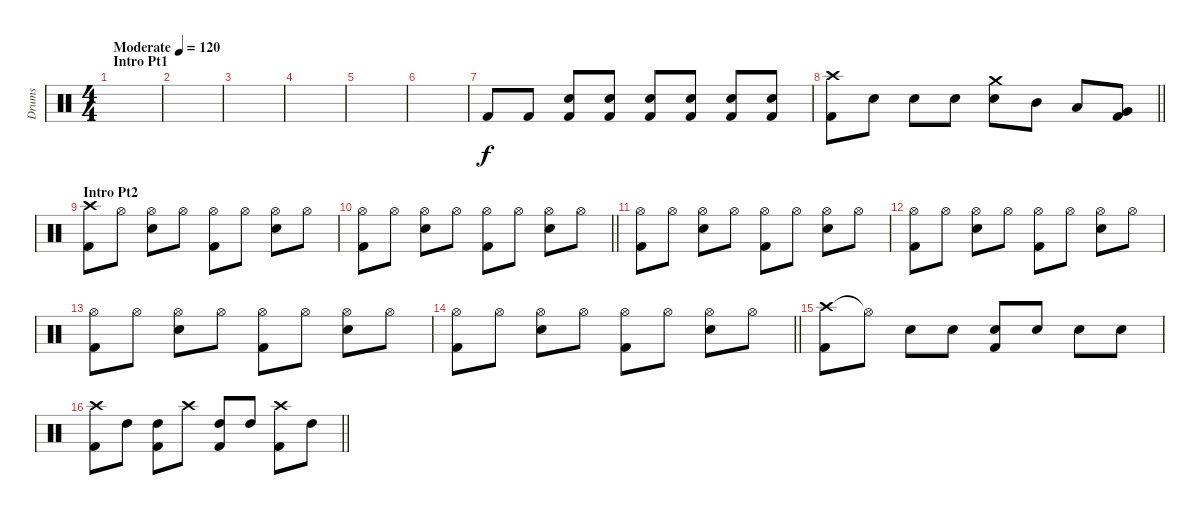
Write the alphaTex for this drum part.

\track ("Drums" "Drums") {instrument percussion}
\staff {score}
\articulation defaults
\ts (4 4)
\section ("" "Intro Pt1")
\tempo (120 "Moderate")
\clef neutral
\ks c
|
|
|
|
|
|
"Kick (hit) 2".8 "Kick (hit) 2".8 ("Electric Snare (hit)" "Kick (hit) 2").8 ("Electric Snare (hit)" "Kick (hit) 2").8 ("Electric Snare (hit)" "Kick (hit) 2").8 ("Electric Snare (hit)" "Kick (hit) 2").8 ("Electric Snare (hit)" "Kick (hit) 2").8 ("Electric Snare (hit)" "Kick (hit) 2").8 |
\barLineRight lightlight
("Crash high (hit)" "Kick (hit) 2").8 "Electric Snare (hit)".8 "Electric Snare (hit)".8 "Electric Snare (hit)".8 ("Crash medium (hit)" "Snare (hit) 2").8 "Mid Tom (hit)".8 "Low Tom (hit)".8 ("Very Low Tom (hit)" "Kick (hit) 2").8 |
\section ("" "Intro Pt2")
("Crash high (hit)" "Kick (hit) 2").8 "Hi-Hat (open)".8 ("Hi-Hat (open)" "Electric Snare (hit)").8 "Hi-Hat (open)".8 ("Hi-Hat (open)" "Kick (hit) 2").8 "Hi-Hat (open)".8 ("Hi-Hat (open)" "Electric Snare (hit)").8 "Hi-Hat (open)".8 |
\barLineRight lightlight
("Hi-Hat (open)" "Kick (hit) 2").8 "Hi-Hat (open)".8 ("Hi-Hat (open)" "Electric Snare (hit)").8 "Hi-Hat (open)".8 ("Hi-Hat (open)" "Kick (hit) 2").8 "Hi-Hat (open)".8 ("Hi-Hat (open)" "Electric Snare (hit)").8 "Hi-Hat (open)".8 |
("Hi-Hat (open)" "Kick (hit) 2").8 "Hi-Hat (open)".8 ("Hi-Hat (open)" "Electric Snare (hit)").8 "Hi-Hat (open)".8 ("Hi-Hat (open)" "Kick (hit) 2").8 "Hi-Hat (open)".8 ("Hi-Hat (open)" "Electric Snare (hit)").8 "Hi-Hat (open)".8 |
("Hi-Hat (open)" "Kick (hit) 2").8 "Hi-Hat (open)".8 ("Hi-Hat (open)" "Electric Snare (hit)").8 "Hi-Hat (open)".8 ("Hi-Hat (open)" "Kick (hit) 2").8 "Hi-Hat (open)".8 ("Hi-Hat (open)" "Electric Snare (hit)").8 "Hi-Hat (open)".8 |
("Hi-Hat (open)" "Kick (hit) 2").8 "Hi-Hat (open)".8 ("Hi-Hat (open)" "Electric Snare (hit)").8 "Hi-Hat (open)".8 ("Hi-Hat (open)" "Kick (hit) 2").8 "Hi-Hat (open)".8 ("Hi-Hat (open)" "Electric Snare (hit)").8 "Hi-Hat (open)".8 |
\barLineRight lightlight
("Hi-Hat (open)" "Kick (hit) 2").8 "Hi-Hat (open)".8 ("Hi-Hat (open)" "Electric Snare (hit)").8 "Hi-Hat (open)".8 ("Hi-Hat (open)" "Kick (hit) 2").8 "Hi-Hat (open)".8 ("Hi-Hat (open)" "Electric Snare (hit)").8 "Hi-Hat (open)".8 |
("Crash high (hit)" "Kick (hit) 2").8 "Hi-Hat (open)"{t}.8 "Electric Snare (hit)".8 "Electric Snare (hit)".8 ("Electric Snare (hit)" "Kick (hit) 2").8 "Electric Snare (hit)".8 "Electric Snare (hit)".8 "Electric Snare (hit)".8 |
\barLineRight lightlight
("Crash high (hit)" "Kick (hit) 2").8 "High Tom (hit)".8 ("High Tom (hit)" "Kick (hit) 2").8 "Crash high (hit)".8 ("High Tom (hit)" "Kick (hit) 2").8 "High Tom (hit)".8 ("Crash high (hit)" "Kick (hit) 2").8 "High Tom (hit)".8
